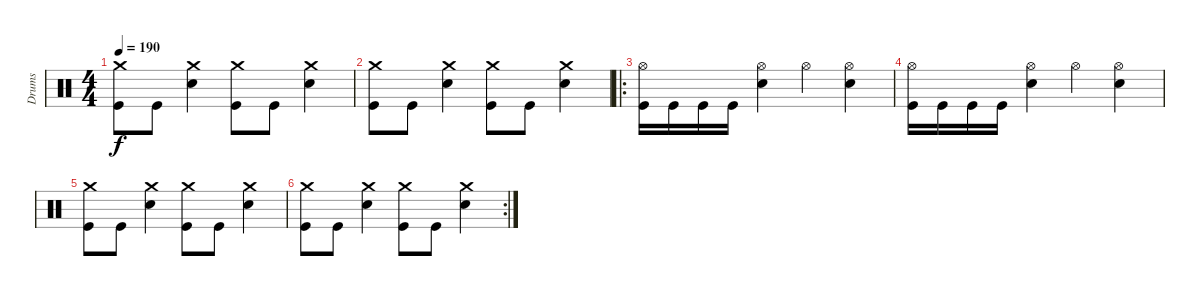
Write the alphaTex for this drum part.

\track ("Drums" "Drums") {instrument percussion}
\staff {score}
\articulation defaults
\ts (4 4)
\tempo 190
\clef neutral
\ks c
("Crash medium (hit)" "Kick (hit)").8{dy f} "Kick (hit)".8 ("Crash medium (hit)" "Snare (hit) 2").4 ("Crash medium (hit)" "Kick (hit)").8 "Kick (hit)".8 ("Crash medium (hit)" "Snare (hit) 2").4 |
("Crash medium (hit)" "Kick (hit)").8 "Kick (hit)".8 ("Crash medium (hit)" "Snare (hit) 2").4 ("Crash medium (hit)" "Kick (hit)").8 "Kick (hit)".8 ("Crash medium (hit)" "Snare (hit) 2").4 |
\ro
("Hi-Hat (open)" "Kick (hit)").16 "Kick (hit)".16 "Kick (hit)".16 "Kick (hit)".16 ("Hi-Hat (open)" "Snare (hit) 2").4 "Hi-Hat (open)".4 ("Hi-Hat (open)" "Snare (hit) 2").4 |
("Hi-Hat (open)" "Kick (hit)").16 "Kick (hit)".16 "Kick (hit)".16 "Kick (hit)".16 ("Hi-Hat (open)" "Snare (hit) 2").4 "Hi-Hat (open)".4 ("Hi-Hat (open)" "Snare (hit) 2").4 |
("Crash medium (hit)" "Kick (hit)").8 "Kick (hit)".8 ("Crash medium (hit)" "Snare (hit) 2").4 ("Crash medium (hit)" "Kick (hit)").8 "Kick (hit)".8 ("Crash medium (hit)" "Snare (hit) 2").4 |
\rc 2
("Crash medium (hit)" "Kick (hit)").8 "Kick (hit)".8 ("Crash medium (hit)" "Snare (hit) 2").4 ("Crash medium (hit)" "Kick (hit)").8 "Kick (hit)".8 ("Crash medium (hit)" "Snare (hit) 2").4
